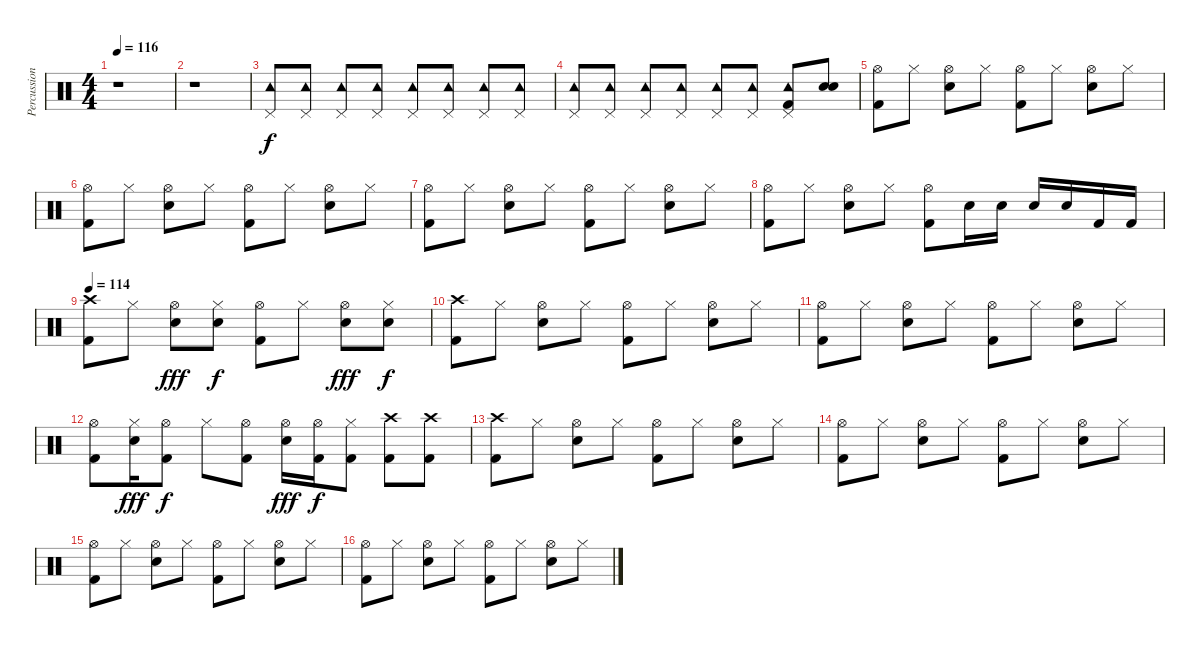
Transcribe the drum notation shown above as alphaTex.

\track ("Percussion" "Percussion") {instrument percussion}
\staff {score}
\articulation defaults
\ts (4 4)
\tempo 116
\tempo 112
\tempo 116
\clef neutral
\ks c
r.1{dy f} |
r.1 |
("Pedal Hi-Hat (hit)" "Tambourine (hit)").8 ("Pedal Hi-Hat (hit)" "Tambourine (hit)").8 ("Pedal Hi-Hat (hit)" "Tambourine (hit)").8 ("Pedal Hi-Hat (hit)" "Tambourine (hit)").8 ("Pedal Hi-Hat (hit)" "Tambourine (hit)").8 ("Pedal Hi-Hat (hit)" "Tambourine (hit)").8 ("Pedal Hi-Hat (hit)" "Tambourine (hit)").8 ("Pedal Hi-Hat (hit)" "Tambourine (hit)").8 |
("Pedal Hi-Hat (hit)" "Tambourine (hit)").8 ("Pedal Hi-Hat (hit)" "Tambourine (hit)").8 ("Pedal Hi-Hat (hit)" "Tambourine (hit)").8 ("Pedal Hi-Hat (hit)" "Tambourine (hit)").8 ("Pedal Hi-Hat (hit)" "Tambourine (hit)").8 ("Pedal Hi-Hat (hit)" "Tambourine (hit)").8 ("Pedal Hi-Hat (hit)" "Tambourine (hit)" "Kick (hit) 2").8 ("Snare (hit) 2" "Snare (hit) 2").8 |
("Hi-Hat (open)" "Kick (hit) 2").8 "Hi-Hat (closed)".8 ("Hi-Hat (open)" "Snare (hit) 2").8 "Hi-Hat (closed)".8 ("Hi-Hat (open)" "Kick (hit) 2").8 "Hi-Hat (closed)".8 ("Hi-Hat (open)" "Snare (hit) 2").8 "Hi-Hat (closed)".8 |
("Hi-Hat (open)" "Kick (hit) 2").8 "Hi-Hat (closed)".8 ("Hi-Hat (open)" "Snare (hit) 2").8 "Hi-Hat (closed)".8 ("Hi-Hat (open)" "Kick (hit) 2").8 "Hi-Hat (closed)".8 ("Hi-Hat (open)" "Snare (hit) 2").8 "Hi-Hat (closed)".8 |
("Hi-Hat (open)" "Kick (hit) 2").8 "Hi-Hat (closed)".8 ("Hi-Hat (open)" "Snare (hit) 2").8 "Hi-Hat (closed)".8 ("Hi-Hat (open)" "Kick (hit) 2").8 "Hi-Hat (closed)".8 ("Hi-Hat (open)" "Snare (hit) 2").8 "Hi-Hat (closed)".8 |
("Hi-Hat (open)" "Kick (hit) 2").8 "Hi-Hat (closed)".8 ("Hi-Hat (open)" "Snare (hit) 2").8 "Hi-Hat (closed)".8 ("Hi-Hat (open)" "Kick (hit) 2").8 "Snare (hit) 2".16 "Snare (hit) 2".16 "Snare (hit) 2".16 "Snare (hit) 2".16 "Kick (hit) 2".16 "Kick (hit) 2".16 |
\tempo 116
\tempo 114
("Crash high (hit)" "Kick (hit) 2").8 "Hi-Hat (closed)".8 ("Hi-Hat (open)" "Snare (hit) 2").8{dy fff} ("Hi-Hat (closed)" "Snare (hit) 2").8{dy f} ("Hi-Hat (open)" "Kick (hit) 2").8 "Hi-Hat (closed)".8 ("Hi-Hat (open)" "Snare (hit) 2").8{dy fff} ("Hi-Hat (closed)" "Snare (hit) 2").8{dy f} |
("Crash high (hit)" "Kick (hit) 2").8 "Hi-Hat (closed)".8 ("Hi-Hat (open)" "Snare (hit) 2").8 "Hi-Hat (closed)".8 ("Hi-Hat (open)" "Kick (hit) 2").8 "Hi-Hat (closed)".8 ("Hi-Hat (open)" "Snare (hit) 2").8 "Hi-Hat (closed)".8 |
("Hi-Hat (open)" "Kick (hit) 2").8 "Hi-Hat (closed)".8 ("Hi-Hat (open)" "Snare (hit) 2").8 "Hi-Hat (closed)".8 ("Hi-Hat (open)" "Kick (hit) 2").8 "Hi-Hat (closed)".8 ("Hi-Hat (open)" "Snare (hit) 2").8 "Hi-Hat (closed)".8 |
("Hi-Hat (open)" "Kick (hit) 2").8 ("Hi-Hat (closed)" "Snare (hit) 2").16{dy fff} ("Hi-Hat (open)" "Kick (hit) 2").8{dy f} "Hi-Hat (closed)".8 ("Hi-Hat (open)" "Kick (hit) 2").8 ("Hi-Hat (open)" "Snare (hit) 2").16{dy fff} ("Hi-Hat (open)" "Kick (hit) 2").16{dy f} ("Hi-Hat (closed)" "Kick (hit) 2").8 ("Crash high (hit)" "Kick (hit) 2").8 ("Crash high (hit)" "Kick (hit) 2").8 |
("Crash high (hit)" "Kick (hit) 2").8 "Hi-Hat (closed)".8 ("Hi-Hat (open)" "Snare (hit) 2").8 "Hi-Hat (closed)".8 ("Hi-Hat (open)" "Kick (hit) 2").8 "Hi-Hat (closed)".8 ("Hi-Hat (open)" "Snare (hit) 2").8 "Hi-Hat (closed)".8 |
("Hi-Hat (open)" "Kick (hit) 2").8 "Hi-Hat (closed)".8 ("Hi-Hat (open)" "Snare (hit) 2").8 "Hi-Hat (closed)".8 ("Hi-Hat (open)" "Kick (hit) 2").8 "Hi-Hat (closed)".8 ("Hi-Hat (open)" "Snare (hit) 2").8 "Hi-Hat (closed)".8 |
("Hi-Hat (open)" "Kick (hit) 2").8 "Hi-Hat (closed)".8 ("Hi-Hat (open)" "Snare (hit) 2").8 "Hi-Hat (closed)".8 ("Hi-Hat (open)" "Kick (hit) 2").8 "Hi-Hat (closed)".8 ("Hi-Hat (open)" "Snare (hit) 2").8 "Hi-Hat (closed)".8 |
("Hi-Hat (open)" "Kick (hit) 2").8 "Hi-Hat (closed)".8 ("Hi-Hat (open)" "Snare (hit) 2").8 "Hi-Hat (closed)".8 ("Hi-Hat (open)" "Kick (hit) 2").8 "Hi-Hat (closed)".8 ("Hi-Hat (open)" "Snare (hit) 2").8 "Hi-Hat (closed)".8
